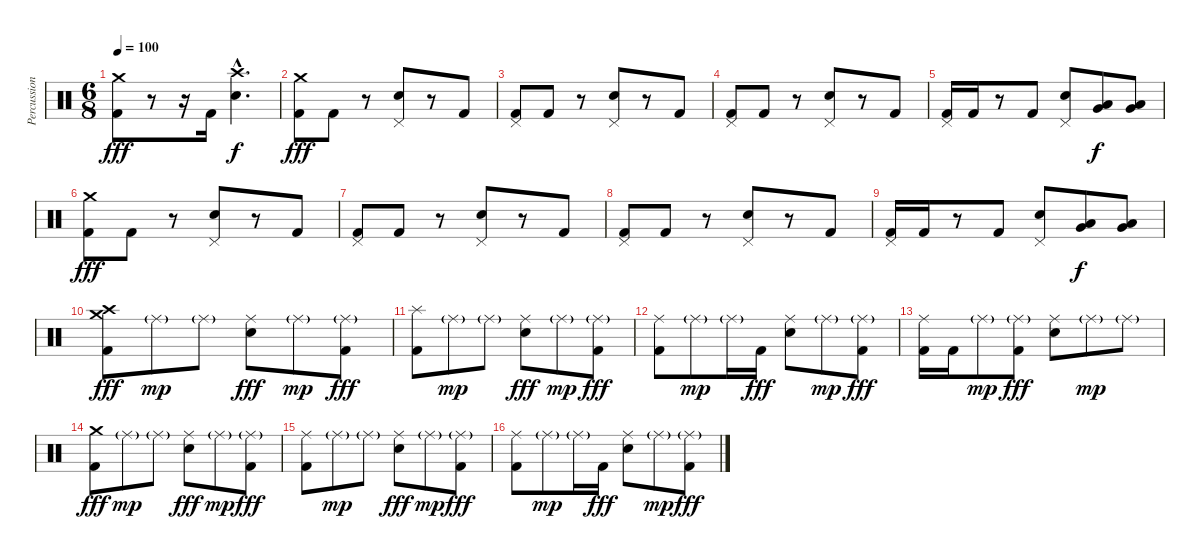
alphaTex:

\track ("Percussion" "Percussion") {instrument percussion}
\staff {score}
\articulation defaults
\ts (6 8)
\tempo 100
\clef neutral
\ks c
("Crash medium (hit)" "Kick (hit) 2").8{dy fff} r.8 r.16 "Kick (hit) 2".16 ("Crash high (hit)"{hac} "Electric Snare (hit)"{hac}).4{d dy f} |
("Crash medium (hit)" "Kick (hit) 2").8{dy fff} "Kick (hit) 2".8 r.8 ("Pedal Hi-Hat (hit)" "Electric Snare (hit)").8 r.8 "Kick (hit) 2".8 |
("Pedal Hi-Hat (hit)" "Kick (hit) 2").8 "Kick (hit) 2".8 r.8 ("Pedal Hi-Hat (hit)" "Electric Snare (hit)").8 r.8 "Kick (hit) 2".8 |
("Pedal Hi-Hat (hit)" "Kick (hit) 2").8 "Kick (hit) 2".8 r.8 ("Pedal Hi-Hat (hit)" "Electric Snare (hit)").8 r.8 "Kick (hit) 2".8 |
("Pedal Hi-Hat (hit)" "Kick (hit) 2").16 "Kick (hit) 2".16 r.8 "Kick (hit) 2".8 ("Pedal Hi-Hat (hit)" "Electric Snare (hit)").8 ("Low Tom (hit)" "Very Low Tom (hit)").8{dy f} ("Very Low Tom (hit)" "Low Floor Tom (hit)").8 |
("Crash medium (hit)" "Kick (hit) 2").8{dy fff} "Kick (hit) 2".8 r.8 ("Pedal Hi-Hat (hit)" "Electric Snare (hit)").8 r.8 "Kick (hit) 2".8 |
("Pedal Hi-Hat (hit)" "Kick (hit) 2").8 "Kick (hit) 2".8 r.8 ("Pedal Hi-Hat (hit)" "Electric Snare (hit)").8 r.8 "Kick (hit) 2".8 |
("Pedal Hi-Hat (hit)" "Kick (hit) 2").8 "Kick (hit) 2".8 r.8 ("Pedal Hi-Hat (hit)" "Electric Snare (hit)").8 r.8 "Kick (hit) 2".8 |
("Pedal Hi-Hat (hit)" "Kick (hit) 2").16 "Kick (hit) 2".16 r.8 "Kick (hit) 2".8 ("Pedal Hi-Hat (hit)" "Electric Snare (hit)").8 ("Low Tom (hit)" "Very Low Tom (hit)").8{dy f} ("Very Low Tom (hit)" "Low Floor Tom (hit)").8 |
("Crash medium (hit)" "Crash high (hit)" "Kick (hit) 2").8{dy fff} "Ride (middle)"{g}.8{dy mp} "Ride (middle)"{g}.8 ("Ride (middle)" "Electric Snare (hit)").8{dy fff} "Ride (middle)"{g}.8{dy mp} ("Ride (middle)"{g} "Kick (hit) 2").8{dy fff} |
("Splash (hit)" "Kick (hit) 2").8 "Ride (middle)"{g}.8{dy mp} "Ride (middle)"{g}.8 ("Ride (middle)" "Electric Snare (hit)").8{dy fff} "Ride (middle)"{g}.8{dy mp} ("Ride (middle)"{g} "Kick (hit) 2").8{dy fff} |
("Ride (middle)" "Kick (hit) 2").8 "Ride (middle)"{g}.8{dy mp} "Ride (middle)"{g}.16 "Kick (hit) 2".16{dy fff} ("Ride (middle)" "Electric Snare (hit)").8 "Ride (middle)"{g}.8{dy mp} ("Ride (middle)"{g} "Kick (hit) 2").8{dy fff} |
("Ride (middle)" "Kick (hit) 2").16 "Kick (hit) 2".16 "Ride (middle)"{g}.8{dy mp} ("Ride (middle)"{g} "Kick (hit) 2").8{dy fff} ("Ride (middle)" "Electric Snare (hit)").8 "Ride (middle)"{g}.8{dy mp} "Ride (middle)"{g}.8 |
("Crash medium (hit)" "Kick (hit) 2").8{dy fff} "Ride (middle)"{g}.8{dy mp} "Ride (middle)"{g}.8 ("Ride (middle)" "Electric Snare (hit)").8{dy fff} "Ride (middle)"{g}.8{dy mp} ("Ride (middle)"{g} "Kick (hit) 2").8{dy fff} |
("Ride (middle)" "Kick (hit) 2").8 "Ride (middle)"{g}.8{dy mp} "Ride (middle)"{g}.8 ("Ride (middle)" "Electric Snare (hit)").8{dy fff} "Ride (middle)"{g}.8{dy mp} ("Ride (middle)"{g} "Kick (hit) 2").8{dy fff} |
("Ride (middle)" "Kick (hit) 2").8 "Ride (middle)"{g}.8{dy mp} "Ride (middle)"{g}.16 "Kick (hit) 2".16{dy fff} ("Ride (middle)" "Electric Snare (hit)").8 "Ride (middle)"{g}.8{dy mp} ("Ride (middle)"{g} "Kick (hit) 2").8{dy fff}
